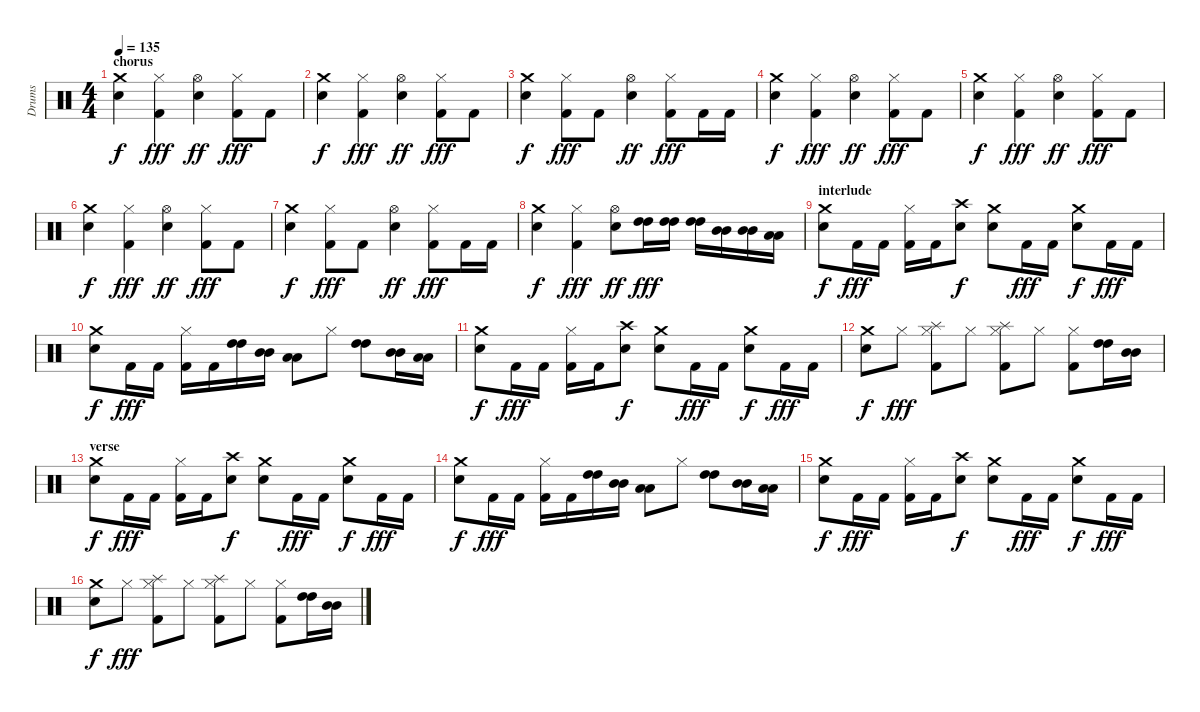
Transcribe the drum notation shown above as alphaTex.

\track ("Drums" "Drums") {instrument percussion}
\staff {score}
\articulation defaults
\ts (4 4)
\section ("" "chorus")
\tempo 135
\clef neutral
\ks c
("Crash medium (hit)" "Electric Snare (hit)").4{dy f} ("Hi-Hat (closed)" "Kick (hit) 2").4{dy fff} ("Hi-Hat (open)" "Electric Snare (hit)").4{dy ff} ("Hi-Hat (closed)" "Kick (hit) 2").8{dy fff} "Kick (hit) 2".8 |
("Crash medium (hit)" "Electric Snare (hit)").4{dy f} ("Hi-Hat (closed)" "Kick (hit) 2").4{dy fff} ("Hi-Hat (open)" "Electric Snare (hit)").4{dy ff} ("Hi-Hat (closed)" "Kick (hit) 2").8{dy fff} "Kick (hit) 2".8 |
("Crash medium (hit)" "Electric Snare (hit)").4{dy f} ("Hi-Hat (closed)" "Kick (hit) 2").8{dy fff} "Kick (hit) 2".8 ("Hi-Hat (open)" "Electric Snare (hit)").4{dy ff} ("Hi-Hat (closed)" "Kick (hit) 2").8{dy fff} "Kick (hit) 2".16 "Kick (hit) 2".16 |
("Crash medium (hit)" "Electric Snare (hit)").4{dy f} ("Hi-Hat (closed)" "Kick (hit) 2").4{dy fff} ("Hi-Hat (open)" "Electric Snare (hit)").4{dy ff} ("Hi-Hat (closed)" "Kick (hit) 2").8{dy fff} "Kick (hit) 2".8 |
("Crash medium (hit)" "Electric Snare (hit)").4{dy f} ("Hi-Hat (closed)" "Kick (hit) 2").4{dy fff} ("Hi-Hat (open)" "Electric Snare (hit)").4{dy ff} ("Hi-Hat (closed)" "Kick (hit) 2").8{dy fff} "Kick (hit) 2".8 |
("Crash medium (hit)" "Electric Snare (hit)").4{dy f} ("Hi-Hat (closed)" "Kick (hit) 2").4{dy fff} ("Hi-Hat (open)" "Electric Snare (hit)").4{dy ff} ("Hi-Hat (closed)" "Kick (hit) 2").8{dy fff} "Kick (hit) 2".8 |
("Crash medium (hit)" "Electric Snare (hit)").4{dy f} ("Hi-Hat (closed)" "Kick (hit) 2").8{dy fff} "Kick (hit) 2".8 ("Hi-Hat (open)" "Electric Snare (hit)").4{dy ff} ("Hi-Hat (closed)" "Kick (hit) 2").8{dy fff} "Kick (hit) 2".16 "Kick (hit) 2".16 |
("Crash medium (hit)" "Electric Snare (hit)").4{dy f} ("Hi-Hat (closed)" "Kick (hit) 2").4{dy fff} ("Hi-Hat (open)" "Electric Snare (hit)").8{dy ff} ("High Tom (hit)" "High Tom (hit)").16{dy fff} ("High Tom (hit)" "High Tom (hit)").16 ("High Tom (hit)" "High Tom (hit)").16 ("Mid Tom (hit)" "Mid Tom (hit)").16 ("Mid Tom (hit)" "Mid Tom (hit)").16 ("Low Tom (hit)" "Low Tom (hit)").16 |
\section ("" "interlude")
("Crash medium (hit)" "Electric Snare (hit)").8{dy f} "Kick (hit) 2".16{dy fff} "Kick (hit) 2".16 ("Hi-Hat (closed)" "Kick (hit) 2").16 "Kick (hit) 2".16 ("Crash high (hit)" "Electric Snare (hit)").8{dy f} ("Crash medium (hit)" "Electric Snare (hit)").8 "Kick (hit) 2".16{dy fff} "Kick (hit) 2".16 ("Crash medium (hit)" "Electric Snare (hit)").8{dy f} "Kick (hit) 2".16{dy fff} "Kick (hit) 2".16 |
("Crash medium (hit)" "Electric Snare (hit)").8{dy f} "Kick (hit) 2".16{dy fff} "Kick (hit) 2".16 ("Hi-Hat (closed)" "Kick (hit) 2").16 "Kick (hit) 2".16 ("High Tom (hit)" "High Tom (hit)").16 ("Mid Tom (hit)" "Mid Tom (hit)").16 ("Low Tom (hit)" "Low Tom (hit)").8 "Hi-Hat (closed)".8 ("High Tom (hit)" "High Tom (hit)").8 ("Mid Tom (hit)" "Mid Tom (hit)").16 ("Low Tom (hit)" "Low Tom (hit)").16 |
("Crash medium (hit)" "Electric Snare (hit)").8{dy f} "Kick (hit) 2".16{dy fff} "Kick (hit) 2".16 ("Hi-Hat (closed)" "Kick (hit) 2").16 "Kick (hit) 2".16 ("Crash high (hit)" "Electric Snare (hit)").8{dy f} ("Crash medium (hit)" "Electric Snare (hit)").8 "Kick (hit) 2".16{dy fff} "Kick (hit) 2".16 ("Crash medium (hit)" "Electric Snare (hit)").8{dy f} "Kick (hit) 2".16{dy fff} "Kick (hit) 2".16 |
("Crash medium (hit)" "Electric Snare (hit)").8{dy f} "Hi-Hat (closed)".8{dy fff} ("Splash (hit)" "Kick (hit) 2" "Hi-Hat (closed)").8 "Hi-Hat (closed)".8 ("Splash (hit)" "Kick (hit) 2" "Hi-Hat (closed)").8 "Hi-Hat (closed)".8 ("Kick (hit) 2" "Hi-Hat (closed)").8 ("High Tom (hit)" "High Tom (hit)").16 ("Mid Tom (hit)" "Mid Tom (hit)").16 |
\section ("" "verse")
("Crash medium (hit)" "Electric Snare (hit)").8{dy f} "Kick (hit) 2".16{dy fff} "Kick (hit) 2".16 ("Hi-Hat (closed)" "Kick (hit) 2").16 "Kick (hit) 2".16 ("Crash high (hit)" "Electric Snare (hit)").8{dy f} ("Crash medium (hit)" "Electric Snare (hit)").8 "Kick (hit) 2".16{dy fff} "Kick (hit) 2".16 ("Crash medium (hit)" "Electric Snare (hit)").8{dy f} "Kick (hit) 2".16{dy fff} "Kick (hit) 2".16 |
("Crash medium (hit)" "Electric Snare (hit)").8{dy f} "Kick (hit) 2".16{dy fff} "Kick (hit) 2".16 ("Hi-Hat (closed)" "Kick (hit) 2").16 "Kick (hit) 2".16 ("High Tom (hit)" "High Tom (hit)").16 ("Mid Tom (hit)" "Mid Tom (hit)").16 ("Low Tom (hit)" "Low Tom (hit)").8 "Hi-Hat (closed)".8 ("High Tom (hit)" "High Tom (hit)").8 ("Mid Tom (hit)" "Mid Tom (hit)").16 ("Low Tom (hit)" "Low Tom (hit)").16 |
("Crash medium (hit)" "Electric Snare (hit)").8{dy f} "Kick (hit) 2".16{dy fff} "Kick (hit) 2".16 ("Hi-Hat (closed)" "Kick (hit) 2").16 "Kick (hit) 2".16 ("Crash high (hit)" "Electric Snare (hit)").8{dy f} ("Crash medium (hit)" "Electric Snare (hit)").8 "Kick (hit) 2".16{dy fff} "Kick (hit) 2".16 ("Crash medium (hit)" "Electric Snare (hit)").8{dy f} "Kick (hit) 2".16{dy fff} "Kick (hit) 2".16 |
("Crash medium (hit)" "Electric Snare (hit)").8{dy f} "Hi-Hat (closed)".8{dy fff} ("Splash (hit)" "Kick (hit) 2" "Hi-Hat (closed)").8 "Hi-Hat (closed)".8 ("Splash (hit)" "Kick (hit) 2" "Hi-Hat (closed)").8 "Hi-Hat (closed)".8 ("Kick (hit) 2" "Hi-Hat (closed)").8 ("High Tom (hit)" "High Tom (hit)").16 ("Mid Tom (hit)" "Mid Tom (hit)").16
